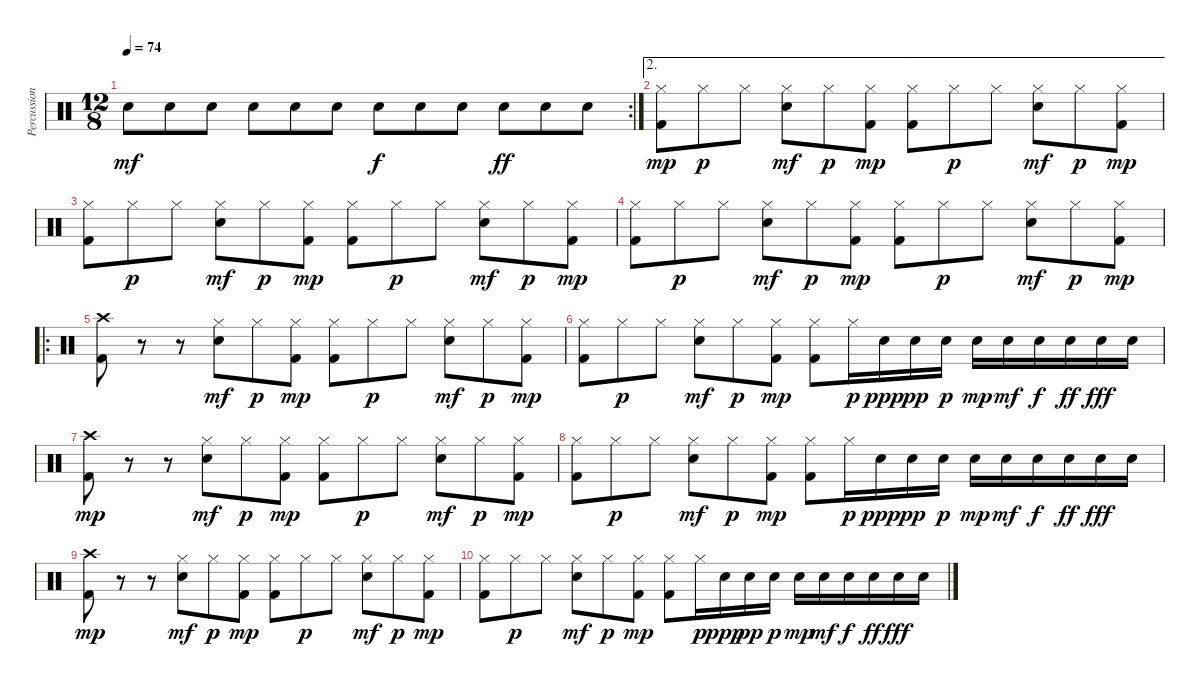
\track ("Percussions" "Percussion") {instrument percussion}
\staff {score}
\articulation defaults
\rc 2
\ts (12 8)
\tempo 74
\clef neutral
\ks c "Snare (hit) 2".8{dy mf} "Snare (hit) 2".8 "Snare (hit) 2".8 "Snare (hit) 2".8 "Snare (hit) 2".8 "Snare (hit) 2".8 "Snare (hit) 2".8{dy f} "Snare (hit) 2".8 "Snare (hit) 2".8 "Snare (hit) 2".8{dy ff} "Snare (hit) 2".8 "Snare (hit) 2".8
|
\ae 2
("Hi-Hat (closed)" "Kick (hit) 2").8{dy mp volume 10} "Hi-Hat (closed)".8{dy p} "Hi-Hat (closed)".8 ("Hi-Hat (closed)" "Snare (hit) 2").8{dy mf} "Hi-Hat (closed)".8{dy p} ("Hi-Hat (closed)" "Kick (hit) 2").8{dy mp} ("Hi-Hat (closed)" "Kick (hit) 2").8 "Hi-Hat (closed)".8{dy p} "Hi-Hat (closed)".8 ("Hi-Hat (closed)" "Snare (hit) 2").8{dy mf} "Hi-Hat (closed)".8{dy p} ("Hi-Hat (closed)" "Kick (hit) 2").8{dy mp} |
("Hi-Hat (closed)" "Kick (hit) 2").8{volume 13} "Hi-Hat (closed)".8{dy p} "Hi-Hat (closed)".8 ("Hi-Hat (closed)" "Snare (hit) 2").8{dy mf} "Hi-Hat (closed)".8{dy p} ("Hi-Hat (closed)" "Kick (hit) 2").8{dy mp} ("Hi-Hat (closed)" "Kick (hit) 2").8 "Hi-Hat (closed)".8{dy p} "Hi-Hat (closed)".8 ("Hi-Hat (closed)" "Snare (hit) 2").8{dy mf} "Hi-Hat (closed)".8{dy p} ("Hi-Hat (closed)" "Kick (hit) 2").8{dy mp} |
("Hi-Hat (closed)" "Kick (hit) 2").8 "Hi-Hat (closed)".8{dy p} "Hi-Hat (closed)".8 ("Hi-Hat (closed)" "Snare (hit) 2").8{dy mf} "Hi-Hat (closed)".8{dy p} ("Hi-Hat (closed)" "Kick (hit) 2").8{dy mp} ("Hi-Hat (closed)" "Kick (hit) 2").8 "Hi-Hat (closed)".8{dy p} "Hi-Hat (closed)".8 ("Hi-Hat (closed)" "Snare (hit) 2").8{dy mf} "Hi-Hat (closed)".8{dy p} ("Hi-Hat (closed)" "Kick (hit) 2").8{dy mp} |
\ro
("Crash high (hit)" "Kick (hit) 2").8 r.8 r.8 ("Hi-Hat (closed)" "Snare (hit) 2").8{dy mf} "Hi-Hat (closed)".8{dy p} ("Hi-Hat (closed)" "Kick (hit) 2").8{dy mp} ("Hi-Hat (closed)" "Kick (hit) 2").8 "Hi-Hat (closed)".8{dy p} "Hi-Hat (closed)".8 ("Hi-Hat (closed)" "Snare (hit) 2").8{dy mf} "Hi-Hat (closed)".8{dy p} ("Hi-Hat (closed)" "Kick (hit) 2").8{dy mp} |
("Hi-Hat (closed)" "Kick (hit) 2").8 "Hi-Hat (closed)".8{dy p} "Hi-Hat (closed)".8 ("Hi-Hat (closed)" "Snare (hit) 2").8{dy mf} "Hi-Hat (closed)".8{dy p} ("Hi-Hat (closed)" "Kick (hit) 2").8{dy mp} ("Hi-Hat (closed)" "Kick (hit) 2").8 "Hi-Hat (closed)".16{dy p} "Snare (hit) 2".16{dy ppp} "Snare (hit) 2".16{dy pp} "Snare (hit) 2".16{dy p} "Snare (hit) 2".16{dy mp} "Snare (hit) 2".16{dy mf} "Snare (hit) 2".16{dy f} "Snare (hit) 2".16{dy ff} "Snare (hit) 2".16{dy fff} "Snare (hit) 2".16 |
("Crash high (hit)" "Kick (hit) 2").8{dy mp} r.8 r.8 ("Hi-Hat (closed)" "Snare (hit) 2").8{dy mf} "Hi-Hat (closed)".8{dy p} ("Hi-Hat (closed)" "Kick (hit) 2").8{dy mp} ("Hi-Hat (closed)" "Kick (hit) 2").8 "Hi-Hat (closed)".8{dy p} "Hi-Hat (closed)".8 ("Hi-Hat (closed)" "Snare (hit) 2").8{dy mf} "Hi-Hat (closed)".8{dy p} ("Hi-Hat (closed)" "Kick (hit) 2").8{dy mp} |
("Hi-Hat (closed)" "Kick (hit) 2").8 "Hi-Hat (closed)".8{dy p} "Hi-Hat (closed)".8 ("Hi-Hat (closed)" "Snare (hit) 2").8{dy mf} "Hi-Hat (closed)".8{dy p} ("Hi-Hat (closed)" "Kick (hit) 2").8{dy mp} ("Hi-Hat (closed)" "Kick (hit) 2").8 "Hi-Hat (closed)".16{dy p} "Snare (hit) 2".16{dy ppp} "Snare (hit) 2".16{dy pp} "Snare (hit) 2".16{dy p} "Snare (hit) 2".16{dy mp} "Snare (hit) 2".16{dy mf} "Snare (hit) 2".16{dy f} "Snare (hit) 2".16{dy ff} "Snare (hit) 2".16{dy fff} "Snare (hit) 2".16 |
("Crash high (hit)" "Kick (hit) 2").8{dy mp} r.8 r.8 ("Hi-Hat (closed)" "Snare (hit) 2").8{dy mf} "Hi-Hat (closed)".8{dy p} ("Hi-Hat (closed)" "Kick (hit) 2").8{dy mp} ("Hi-Hat (closed)" "Kick (hit) 2").8 "Hi-Hat (closed)".8{dy p} "Hi-Hat (closed)".8 ("Hi-Hat (closed)" "Snare (hit) 2").8{dy mf} "Hi-Hat (closed)".8{dy p} ("Hi-Hat (closed)" "Kick (hit) 2").8{dy mp} |
("Hi-Hat (closed)" "Kick (hit) 2").8 "Hi-Hat (closed)".8{dy p} "Hi-Hat (closed)".8 ("Hi-Hat (closed)" "Snare (hit) 2").8{dy mf} "Hi-Hat (closed)".8{dy p} ("Hi-Hat (closed)" "Kick (hit) 2").8{dy mp} ("Hi-Hat (closed)" "Kick (hit) 2").8 "Hi-Hat (closed)".16{dy p} "Snare (hit) 2".16{dy ppp} "Snare (hit) 2".16{dy pp} "Snare (hit) 2".16{dy p} "Snare (hit) 2".16{dy mp} "Snare (hit) 2".16{dy mf} "Snare (hit) 2".16{dy f} "Snare (hit) 2".16{dy ff} "Snare (hit) 2".16{dy fff} "Snare (hit) 2".16
